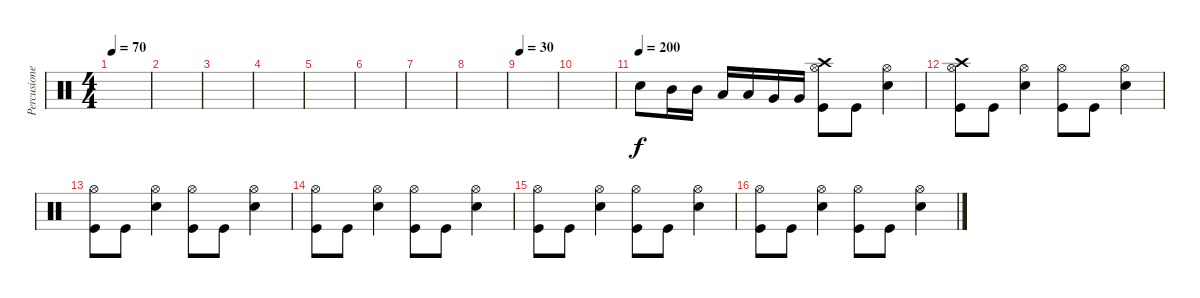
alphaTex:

\track ("Percusiones" "Percusione") {instrument percussion}
\staff {score}
\articulation defaults
\ts (4 4)
\tempo 70
\clef neutral
\ks c
|
|
|
|
|
|
|
|
\tempo 30
|
|
\tempo (200)
"Electric Snare (hit)".8 "Mid Tom (hit)".16 "Mid Tom (hit)".16 "Low Tom (hit)".16 "Low Tom (hit)".16 "Very Low Tom (hit)".16 "Very Low Tom (hit)".16 ("Hi-Hat (open)" "Crash high (hit)" "Kick (hit)").8 "Kick (hit)".8 ("Hi-Hat (open)" "Electric Snare (hit)").4 |
("Crash high (hit)" "Hi-Hat (open)" "Kick (hit)").8 "Kick (hit)".8 ("Hi-Hat (open)" "Electric Snare (hit)").4 ("Hi-Hat (open)" "Kick (hit)").8 "Kick (hit)".8 ("Hi-Hat (open)" "Electric Snare (hit)").4 |
("Kick (hit)" "Hi-Hat (open)").8 "Kick (hit)".8 ("Electric Snare (hit)" "Hi-Hat (open)").4 ("Hi-Hat (open)" "Kick (hit)").8 "Kick (hit)".8 ("Electric Snare (hit)" "Hi-Hat (open)").4 |
("Kick (hit)" "Hi-Hat (open)").8 "Kick (hit)".8 ("Electric Snare (hit)" "Hi-Hat (open)").4 ("Hi-Hat (open)" "Kick (hit)").8 "Kick (hit)".8 ("Electric Snare (hit)" "Hi-Hat (open)").4 |
("Kick (hit)" "Hi-Hat (open)").8 "Kick (hit)".8 ("Electric Snare (hit)" "Hi-Hat (open)").4 ("Hi-Hat (open)" "Kick (hit)").8 "Kick (hit)".8 ("Electric Snare (hit)" "Hi-Hat (open)").4 |
("Kick (hit)" "Hi-Hat (open)").8 "Kick (hit)".8 ("Electric Snare (hit)" "Hi-Hat (open)").4 ("Hi-Hat (open)" "Kick (hit)").8 "Kick (hit)".8 ("Electric Snare (hit)" "Hi-Hat (open)").4
